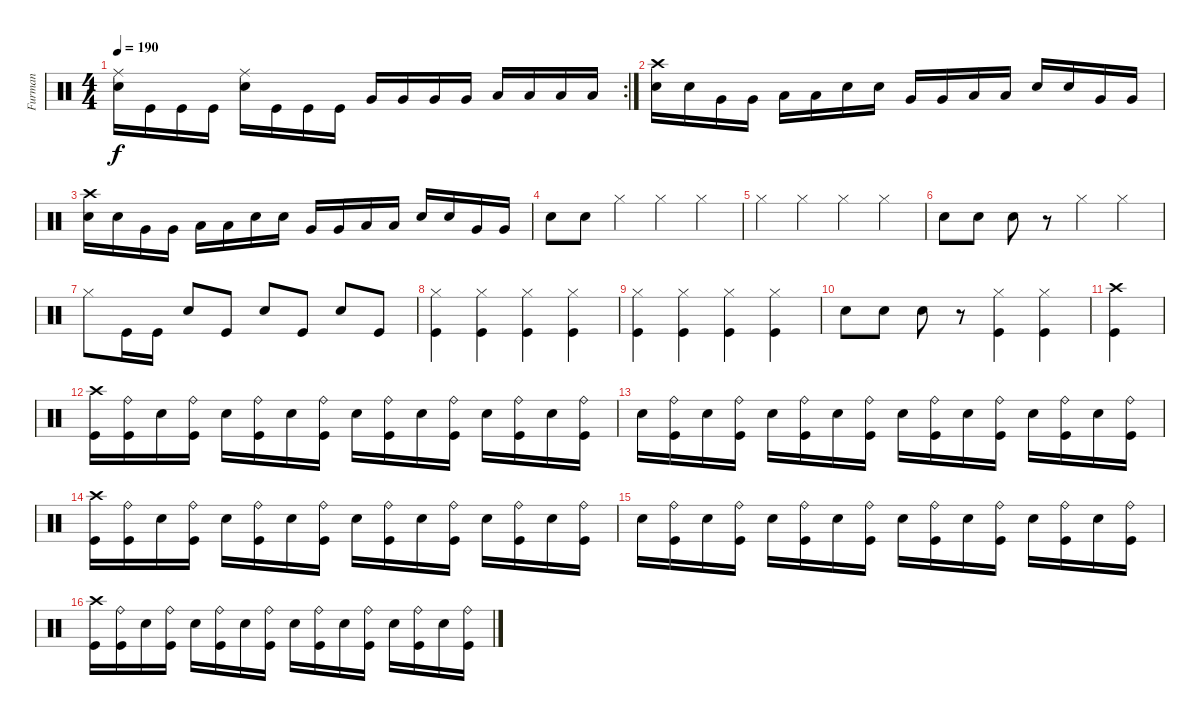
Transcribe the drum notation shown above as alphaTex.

\track ("Furman" "Furman") {instrument percussion}
\staff {score}
\articulation defaults
\rc 2
\ts (4 4)
\tempo 190
\clef neutral
\ks c
("Ride (middle)" "Electric Snare (hit)").16{dy f} "Kick (hit)".16 "Kick (hit)".16 "Kick (hit)".16 ("Ride (middle)" "Electric Snare (hit)").16 "Kick (hit)".16 "Kick (hit)".16 "Kick (hit)".16 "Very Low Tom (hit)".16 "Very Low Tom (hit)".16 "Very Low Tom (hit)".16 "Very Low Tom (hit)".16 "Low Floor Tom (hit)".16 "Low Floor Tom (hit)".16 "Low Floor Tom (hit)".16 "Low Floor Tom (hit)".16 |
("Crash high (hit)" "Electric Snare (hit)").16 "Electric Snare (hit)".16 "Very Low Tom (hit)".16 "Very Low Tom (hit)".16 "Low Floor Tom (hit)".16 "Low Floor Tom (hit)".16 "Electric Snare (hit)".16 "Electric Snare (hit)".16 "Very Low Tom (hit)".16 "Very Low Tom (hit)".16 "Low Floor Tom (hit)".16 "Low Floor Tom (hit)".16 "Electric Snare (hit)".16 "Electric Snare (hit)".16 "Very Low Tom (hit)".16 "Very Low Tom (hit)".16 |
("Crash high (hit)" "Electric Snare (hit)").16 "Electric Snare (hit)".16 "Very Low Tom (hit)".16 "Very Low Tom (hit)".16 "Low Floor Tom (hit)".16 "Low Floor Tom (hit)".16 "Electric Snare (hit)".16 "Electric Snare (hit)".16 "Very Low Tom (hit)".16 "Very Low Tom (hit)".16 "Low Floor Tom (hit)".16 "Low Floor Tom (hit)".16 "Electric Snare (hit)".16 "Electric Snare (hit)".16 "Very Low Tom (hit)".16 "Very Low Tom (hit)".16 |
"Electric Snare (hit)".8 "Electric Snare (hit)".8 "Hi-Hat (closed)".4 "Hi-Hat (closed)".4 "Hi-Hat (closed)".4 |
"Hi-Hat (closed)".4 "Hi-Hat (closed)".4 "Hi-Hat (closed)".4 "Hi-Hat (closed)".4 |
"Electric Snare (hit)".8 "Electric Snare (hit)".8 "Electric Snare (hit)".8 r.8 "Hi-Hat (closed)".4 "Hi-Hat (closed)".4 |
"Hi-Hat (closed)".8 "Kick (hit)".16 "Kick (hit)".16 "Electric Snare (hit)".8 "Kick (hit)".8 "Electric Snare (hit)".8 "Kick (hit)".8 "Electric Snare (hit)".8 "Kick (hit)".8 |
("Hi-Hat (closed)" "Kick (hit)").4 ("Hi-Hat (closed)" "Kick (hit)").4 ("Hi-Hat (closed)" "Kick (hit)").4 ("Hi-Hat (closed)" "Kick (hit)").4 |
("Hi-Hat (closed)" "Kick (hit)").4 ("Hi-Hat (closed)" "Kick (hit)").4 ("Hi-Hat (closed)" "Kick (hit)").4 ("Hi-Hat (closed)" "Kick (hit)").4 |
"Electric Snare (hit)".8 "Electric Snare (hit)".8 "Electric Snare (hit)".8 r.8 ("Hi-Hat (closed)" "Kick (hit)").4 ("Hi-Hat (closed)" "Kick (hit)").4 |
("Crash high (hit)" "Kick (hit)").4 |
("Crash high (hit)" "Kick (hit)").16 ("Ride (bell)" "Kick (hit)").16 "Electric Snare (hit)".16 ("Ride (bell)" "Kick (hit)").16 "Electric Snare (hit)".16 ("Ride (bell)" "Kick (hit)").16 "Electric Snare (hit)".16 ("Ride (bell)" "Kick (hit)").16 "Electric Snare (hit)".16 ("Ride (bell)" "Kick (hit)").16 "Electric Snare (hit)".16 ("Ride (bell)" "Kick (hit)").16 "Electric Snare (hit)".16 ("Ride (bell)" "Kick (hit)").16 "Electric Snare (hit)".16 ("Ride (bell)" "Kick (hit)").16 |
"Electric Snare (hit)".16 ("Ride (bell)" "Kick (hit)").16 "Electric Snare (hit)".16 ("Ride (bell)" "Kick (hit)").16 "Electric Snare (hit)".16 ("Ride (bell)" "Kick (hit)").16 "Electric Snare (hit)".16 ("Ride (bell)" "Kick (hit)").16 "Electric Snare (hit)".16 ("Ride (bell)" "Kick (hit)").16 "Electric Snare (hit)".16 ("Ride (bell)" "Kick (hit)").16 "Electric Snare (hit)".16 ("Ride (bell)" "Kick (hit)").16 "Electric Snare (hit)".16 ("Ride (bell)" "Kick (hit)").16 |
("Crash high (hit)" "Kick (hit)").16 ("Ride (bell)" "Kick (hit)").16 "Electric Snare (hit)".16 ("Ride (bell)" "Kick (hit)").16 "Electric Snare (hit)".16 ("Ride (bell)" "Kick (hit)").16 "Electric Snare (hit)".16 ("Ride (bell)" "Kick (hit)").16 "Electric Snare (hit)".16 ("Ride (bell)" "Kick (hit)").16 "Electric Snare (hit)".16 ("Ride (bell)" "Kick (hit)").16 "Electric Snare (hit)".16 ("Ride (bell)" "Kick (hit)").16 "Electric Snare (hit)".16 ("Ride (bell)" "Kick (hit)").16 |
"Electric Snare (hit)".16 ("Ride (bell)" "Kick (hit)").16 "Electric Snare (hit)".16 ("Ride (bell)" "Kick (hit)").16 "Electric Snare (hit)".16 ("Ride (bell)" "Kick (hit)").16 "Electric Snare (hit)".16 ("Ride (bell)" "Kick (hit)").16 "Electric Snare (hit)".16 ("Ride (bell)" "Kick (hit)").16 "Electric Snare (hit)".16 ("Ride (bell)" "Kick (hit)").16 "Electric Snare (hit)".16 ("Ride (bell)" "Kick (hit)").16 "Electric Snare (hit)".16 ("Ride (bell)" "Kick (hit)").16 |
("Crash high (hit)" "Kick (hit)").16 ("Ride (bell)" "Kick (hit)").16 "Electric Snare (hit)".16 ("Ride (bell)" "Kick (hit)").16 "Electric Snare (hit)".16 ("Ride (bell)" "Kick (hit)").16 "Electric Snare (hit)".16 ("Ride (bell)" "Kick (hit)").16 "Electric Snare (hit)".16 ("Ride (bell)" "Kick (hit)").16 "Electric Snare (hit)".16 ("Ride (bell)" "Kick (hit)").16 "Electric Snare (hit)".16 ("Ride (bell)" "Kick (hit)").16 "Electric Snare (hit)".16 ("Ride (bell)" "Kick (hit)").16
